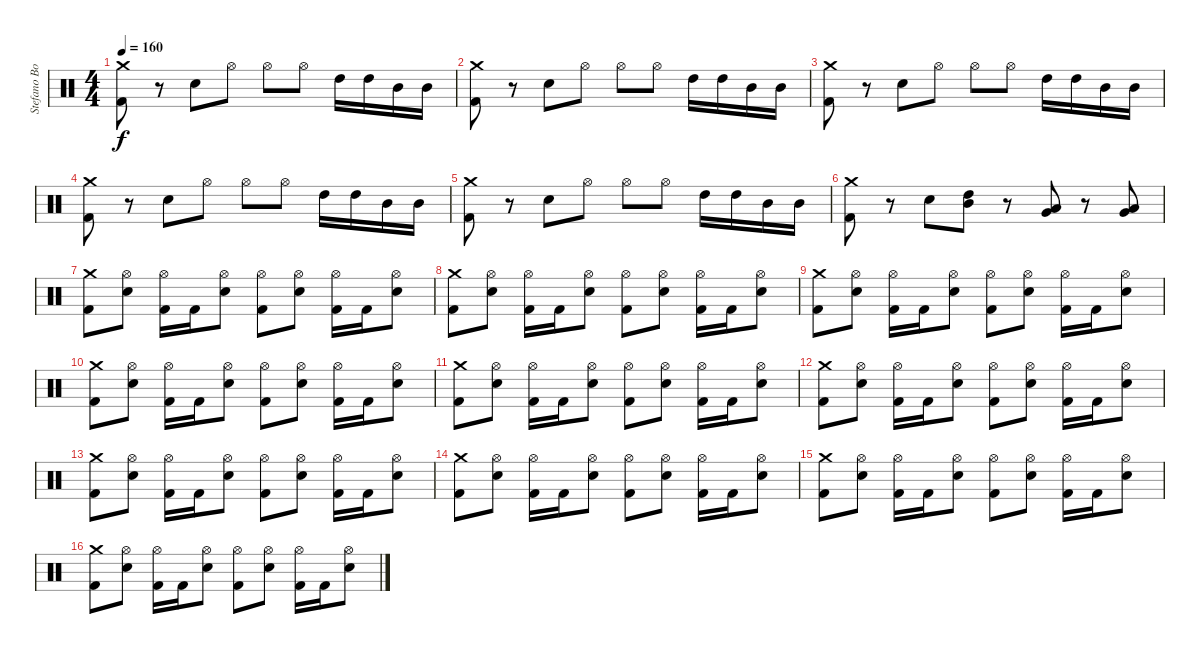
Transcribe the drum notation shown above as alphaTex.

\track ("Stefano Bonini" "Stefano Bo") {instrument percussion}
\staff {score}
\articulation defaults
\ts (4 4)
\tempo 160
\clef neutral
\ks c
("Crash medium (hit)" "Kick (hit) 2").8{dy f} r.8 "Snare (hit) 2".8 "Hi-Hat (open)".8 "Hi-Hat (open)".8 "Hi-Hat (open)".8 "High Tom (hit)".16 "High Tom (hit)".16 "Mid Tom (hit)".16 "Mid Tom (hit)".16 |
("Crash medium (hit)" "Kick (hit) 2").8 r.8 "Snare (hit) 2".8 "Hi-Hat (open)".8 "Hi-Hat (open)".8 "Hi-Hat (open)".8 "High Tom (hit)".16 "High Tom (hit)".16 "Mid Tom (hit)".16 "Mid Tom (hit)".16 |
("Crash medium (hit)" "Kick (hit) 2").8 r.8 "Snare (hit) 2".8 "Hi-Hat (open)".8 "Hi-Hat (open)".8 "Hi-Hat (open)".8 "High Tom (hit)".16 "High Tom (hit)".16 "Mid Tom (hit)".16 "Mid Tom (hit)".16 |
("Crash medium (hit)" "Kick (hit) 2").8 r.8 "Snare (hit) 2".8 "Hi-Hat (open)".8 "Hi-Hat (open)".8 "Hi-Hat (open)".8 "High Tom (hit)".16 "High Tom (hit)".16 "Mid Tom (hit)".16 "Mid Tom (hit)".16 |
("Crash medium (hit)" "Kick (hit) 2").8 r.8 "Snare (hit) 2".8 "Hi-Hat (open)".8 "Hi-Hat (open)".8 "Hi-Hat (open)".8 "High Tom (hit)".16 "High Tom (hit)".16 "Mid Tom (hit)".16 "Mid Tom (hit)".16 |
("Crash medium (hit)" "Kick (hit) 2").8 r.8 "Snare (hit) 2".8 ("High Tom (hit)" "Mid Tom (hit)").8 r.8 ("Very Low Tom (hit)" "Low Tom (hit)").8 r.8 ("Low Floor Tom (hit)" "Very Low Tom (hit)").8 |
("Crash medium (hit)" "Kick (hit) 2").8 ("Hi-Hat (open)" "Snare (hit) 2").8 ("Hi-Hat (open)" "Kick (hit) 2").16 "Kick (hit) 2".16 ("Hi-Hat (open)" "Snare (hit) 2").8 ("Hi-Hat (open)" "Kick (hit) 2").8 ("Hi-Hat (open)" "Snare (hit) 2").8 ("Hi-Hat (open)" "Kick (hit) 2").16 "Kick (hit) 2".16 ("Hi-Hat (open)" "Snare (hit) 2").8 |
("Crash medium (hit)" "Kick (hit) 2").8 ("Hi-Hat (open)" "Snare (hit) 2").8 ("Hi-Hat (open)" "Kick (hit) 2").16 "Kick (hit) 2".16 ("Hi-Hat (open)" "Snare (hit) 2").8 ("Hi-Hat (open)" "Kick (hit) 2").8 ("Hi-Hat (open)" "Snare (hit) 2").8 ("Hi-Hat (open)" "Kick (hit) 2").16 "Kick (hit) 2".16 ("Hi-Hat (open)" "Snare (hit) 2").8 |
("Crash medium (hit)" "Kick (hit) 2").8 ("Hi-Hat (open)" "Snare (hit) 2").8 ("Hi-Hat (open)" "Kick (hit) 2").16 "Kick (hit) 2".16 ("Hi-Hat (open)" "Snare (hit) 2").8 ("Hi-Hat (open)" "Kick (hit) 2").8 ("Hi-Hat (open)" "Snare (hit) 2").8 ("Hi-Hat (open)" "Kick (hit) 2").16 "Kick (hit) 2".16 ("Hi-Hat (open)" "Snare (hit) 2").8 |
("Crash medium (hit)" "Kick (hit) 2").8 ("Hi-Hat (open)" "Snare (hit) 2").8 ("Hi-Hat (open)" "Kick (hit) 2").16 "Kick (hit) 2".16 ("Hi-Hat (open)" "Snare (hit) 2").8 ("Hi-Hat (open)" "Kick (hit) 2").8 ("Hi-Hat (open)" "Snare (hit) 2").8 ("Hi-Hat (open)" "Kick (hit) 2").16 "Kick (hit) 2".16 ("Hi-Hat (open)" "Snare (hit) 2").8 |
("Crash medium (hit)" "Kick (hit) 2").8 ("Hi-Hat (open)" "Snare (hit) 2").8 ("Hi-Hat (open)" "Kick (hit) 2").16 "Kick (hit) 2".16 ("Hi-Hat (open)" "Snare (hit) 2").8 ("Hi-Hat (open)" "Kick (hit) 2").8 ("Hi-Hat (open)" "Snare (hit) 2").8 ("Hi-Hat (open)" "Kick (hit) 2").16 "Kick (hit) 2".16 ("Hi-Hat (open)" "Snare (hit) 2").8 |
("Crash medium (hit)" "Kick (hit) 2").8 ("Hi-Hat (open)" "Snare (hit) 2").8 ("Hi-Hat (open)" "Kick (hit) 2").16 "Kick (hit) 2".16 ("Hi-Hat (open)" "Snare (hit) 2").8 ("Hi-Hat (open)" "Kick (hit) 2").8 ("Hi-Hat (open)" "Snare (hit) 2").8 ("Hi-Hat (open)" "Kick (hit) 2").16 "Kick (hit) 2".16 ("Hi-Hat (open)" "Snare (hit) 2").8 |
("Crash medium (hit)" "Kick (hit) 2").8 ("Hi-Hat (open)" "Snare (hit) 2").8 ("Hi-Hat (open)" "Kick (hit) 2").16 "Kick (hit) 2".16 ("Hi-Hat (open)" "Snare (hit) 2").8 ("Hi-Hat (open)" "Kick (hit) 2").8 ("Hi-Hat (open)" "Snare (hit) 2").8 ("Hi-Hat (open)" "Kick (hit) 2").16 "Kick (hit) 2".16 ("Hi-Hat (open)" "Snare (hit) 2").8 |
("Crash medium (hit)" "Kick (hit) 2").8 ("Hi-Hat (open)" "Snare (hit) 2").8 ("Hi-Hat (open)" "Kick (hit) 2").16 "Kick (hit) 2".16 ("Hi-Hat (open)" "Snare (hit) 2").8 ("Hi-Hat (open)" "Kick (hit) 2").8 ("Hi-Hat (open)" "Snare (hit) 2").8 ("Hi-Hat (open)" "Kick (hit) 2").16 "Kick (hit) 2".16 ("Hi-Hat (open)" "Snare (hit) 2").8 |
("Crash medium (hit)" "Kick (hit) 2").8 ("Hi-Hat (open)" "Snare (hit) 2").8 ("Hi-Hat (open)" "Kick (hit) 2").16 "Kick (hit) 2".16 ("Hi-Hat (open)" "Snare (hit) 2").8 ("Hi-Hat (open)" "Kick (hit) 2").8 ("Hi-Hat (open)" "Snare (hit) 2").8 ("Hi-Hat (open)" "Kick (hit) 2").16 "Kick (hit) 2".16 ("Hi-Hat (open)" "Snare (hit) 2").8 |
("Crash medium (hit)" "Kick (hit) 2").8 ("Hi-Hat (open)" "Snare (hit) 2").8 ("Hi-Hat (open)" "Kick (hit) 2").16 "Kick (hit) 2".16 ("Hi-Hat (open)" "Snare (hit) 2").8 ("Hi-Hat (open)" "Kick (hit) 2").8 ("Hi-Hat (open)" "Snare (hit) 2").8 ("Hi-Hat (open)" "Kick (hit) 2").16 "Kick (hit) 2".16 ("Hi-Hat (open)" "Snare (hit) 2").8
